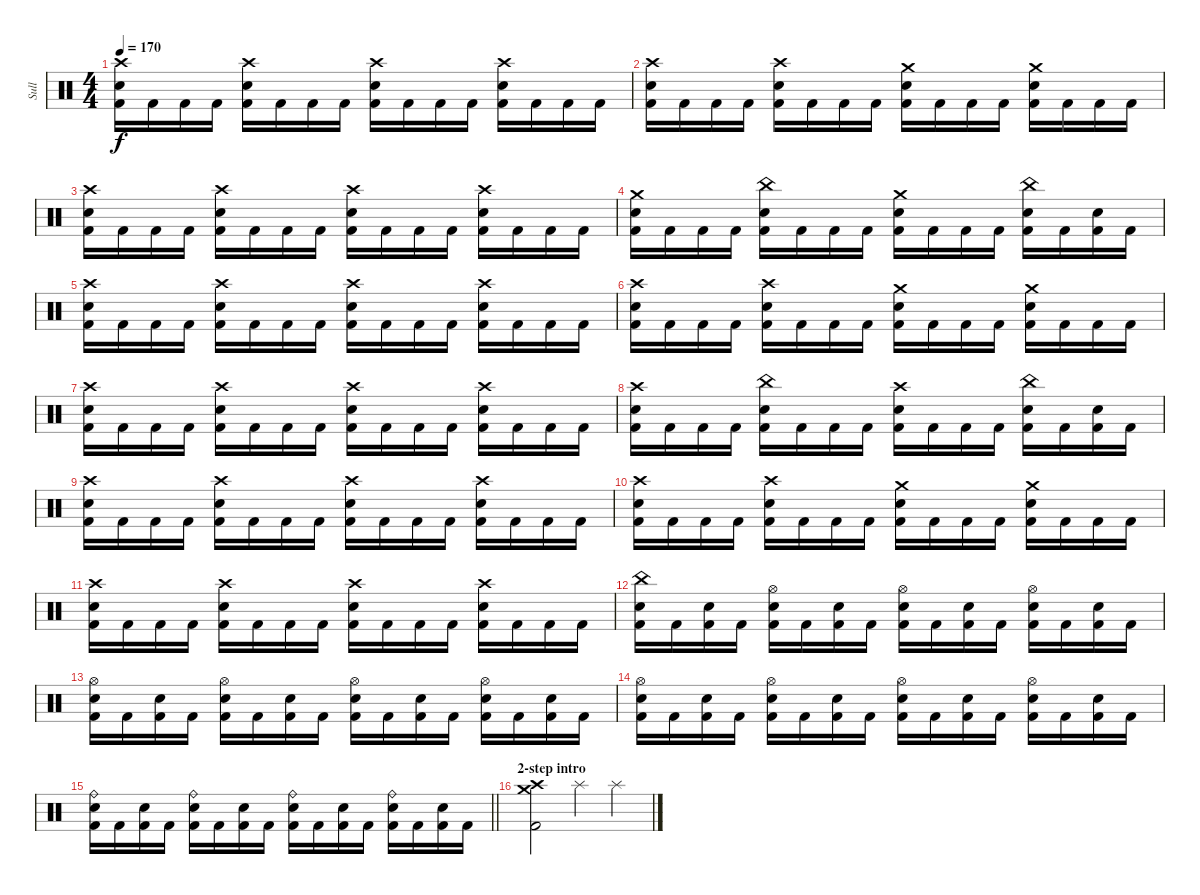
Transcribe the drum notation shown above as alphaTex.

\track ("Sull" "Sull") {instrument percussion}
\staff {score}
\articulation defaults
\ts (4 4)
\tempo 170
\clef neutral
\ks c
("Crash high (hit)" "Electric Snare (hit)" "Kick (hit) 2").16{dy f} "Kick (hit) 2".16 "Kick (hit) 2".16 "Kick (hit) 2".16 ("Crash high (hit)" "Electric Snare (hit)" "Kick (hit) 2").16 "Kick (hit) 2".16 "Kick (hit) 2".16 "Kick (hit) 2".16 ("Crash high (hit)" "Electric Snare (hit)" "Kick (hit) 2").16 "Kick (hit) 2".16 "Kick (hit) 2".16 "Kick (hit) 2".16 ("Crash high (hit)" "Electric Snare (hit)" "Kick (hit) 2").16 "Kick (hit) 2".16 "Kick (hit) 2".16 "Kick (hit) 2".16 |
("Crash high (hit)" "Electric Snare (hit)" "Kick (hit) 2").16 "Kick (hit) 2".16 "Kick (hit) 2".16 "Kick (hit) 2".16 ("Crash high (hit)" "Electric Snare (hit)" "Kick (hit) 2").16 "Kick (hit) 2".16 "Kick (hit) 2".16 "Kick (hit) 2".16 ("Crash medium (hit)" "Electric Snare (hit)" "Kick (hit) 2").16 "Kick (hit) 2".16 "Kick (hit) 2".16 "Kick (hit) 2".16 ("Crash medium (hit)" "Electric Snare (hit)" "Kick (hit) 2").16 "Kick (hit) 2".16 "Kick (hit) 2".16 "Kick (hit) 2".16 |
("Crash high (hit)" "Electric Snare (hit)" "Kick (hit) 2").16 "Kick (hit) 2".16 "Kick (hit) 2".16 "Kick (hit) 2".16 ("Crash high (hit)" "Electric Snare (hit)" "Kick (hit) 2").16 "Kick (hit) 2".16 "Kick (hit) 2".16 "Kick (hit) 2".16 ("Crash high (hit)" "Electric Snare (hit)" "Kick (hit) 2").16 "Kick (hit) 2".16 "Kick (hit) 2".16 "Kick (hit) 2".16 ("Crash high (hit)" "Electric Snare (hit)" "Kick (hit) 2").16 "Kick (hit) 2".16 "Kick (hit) 2".16 "Kick (hit) 2".16 |
("Crash medium (hit)" "Electric Snare (hit)" "Kick (hit) 2").16 "Kick (hit) 2".16 "Kick (hit) 2".16 "Kick (hit) 2".16 ("China (hit)" "Electric Snare (hit)" "Kick (hit) 2").16 "Kick (hit) 2".16 "Kick (hit) 2".16 "Kick (hit) 2".16 ("Crash medium (hit)" "Electric Snare (hit)" "Kick (hit) 2").16 "Kick (hit) 2".16 "Kick (hit) 2".16 "Kick (hit) 2".16 ("China (hit)" "Electric Snare (hit)" "Kick (hit) 2").16 "Kick (hit) 2".16 ("Electric Snare (hit)" "Kick (hit) 2").16 "Kick (hit) 2".16 |
("Crash high (hit)" "Electric Snare (hit)" "Kick (hit) 2").16 "Kick (hit) 2".16 "Kick (hit) 2".16 "Kick (hit) 2".16 ("Crash high (hit)" "Electric Snare (hit)" "Kick (hit) 2").16 "Kick (hit) 2".16 "Kick (hit) 2".16 "Kick (hit) 2".16 ("Crash high (hit)" "Electric Snare (hit)" "Kick (hit) 2").16 "Kick (hit) 2".16 "Kick (hit) 2".16 "Kick (hit) 2".16 ("Crash high (hit)" "Electric Snare (hit)" "Kick (hit) 2").16 "Kick (hit) 2".16 "Kick (hit) 2".16 "Kick (hit) 2".16 |
("Crash high (hit)" "Electric Snare (hit)" "Kick (hit) 2").16 "Kick (hit) 2".16 "Kick (hit) 2".16 "Kick (hit) 2".16 ("Crash high (hit)" "Electric Snare (hit)" "Kick (hit) 2").16 "Kick (hit) 2".16 "Kick (hit) 2".16 "Kick (hit) 2".16 ("Crash medium (hit)" "Electric Snare (hit)" "Kick (hit) 2").16 "Kick (hit) 2".16 "Kick (hit) 2".16 "Kick (hit) 2".16 ("Crash medium (hit)" "Electric Snare (hit)" "Kick (hit) 2").16 "Kick (hit) 2".16 "Kick (hit) 2".16 "Kick (hit) 2".16 |
("Crash high (hit)" "Electric Snare (hit)" "Kick (hit) 2").16 "Kick (hit) 2".16 "Kick (hit) 2".16 "Kick (hit) 2".16 ("Crash high (hit)" "Electric Snare (hit)" "Kick (hit) 2").16 "Kick (hit) 2".16 "Kick (hit) 2".16 "Kick (hit) 2".16 ("Crash high (hit)" "Electric Snare (hit)" "Kick (hit) 2").16 "Kick (hit) 2".16 "Kick (hit) 2".16 "Kick (hit) 2".16 ("Crash high (hit)" "Electric Snare (hit)" "Kick (hit) 2").16 "Kick (hit) 2".16 "Kick (hit) 2".16 "Kick (hit) 2".16 |
("Crash high (hit)" "Electric Snare (hit)" "Kick (hit) 2").16 "Kick (hit) 2".16 "Kick (hit) 2".16 "Kick (hit) 2".16 ("China (hit)" "Electric Snare (hit)" "Kick (hit) 2").16 "Kick (hit) 2".16 "Kick (hit) 2".16 "Kick (hit) 2".16 ("Crash high (hit)" "Electric Snare (hit)" "Kick (hit) 2").16 "Kick (hit) 2".16 "Kick (hit) 2".16 "Kick (hit) 2".16 ("China (hit)" "Electric Snare (hit)" "Kick (hit) 2").16 "Kick (hit) 2".16 ("Electric Snare (hit)" "Kick (hit) 2").16 "Kick (hit) 2".16 |
("Crash high (hit)" "Electric Snare (hit)" "Kick (hit) 2").16 "Kick (hit) 2".16 "Kick (hit) 2".16 "Kick (hit) 2".16 ("Crash high (hit)" "Electric Snare (hit)" "Kick (hit) 2").16 "Kick (hit) 2".16 "Kick (hit) 2".16 "Kick (hit) 2".16 ("Crash high (hit)" "Electric Snare (hit)" "Kick (hit) 2").16 "Kick (hit) 2".16 "Kick (hit) 2".16 "Kick (hit) 2".16 ("Crash high (hit)" "Electric Snare (hit)" "Kick (hit) 2").16 "Kick (hit) 2".16 "Kick (hit) 2".16 "Kick (hit) 2".16 |
("Crash high (hit)" "Electric Snare (hit)" "Kick (hit) 2").16 "Kick (hit) 2".16 "Kick (hit) 2".16 "Kick (hit) 2".16 ("Crash high (hit)" "Electric Snare (hit)" "Kick (hit) 2").16 "Kick (hit) 2".16 "Kick (hit) 2".16 "Kick (hit) 2".16 ("Crash medium (hit)" "Electric Snare (hit)" "Kick (hit) 2").16 "Kick (hit) 2".16 "Kick (hit) 2".16 "Kick (hit) 2".16 ("Crash medium (hit)" "Electric Snare (hit)" "Kick (hit) 2").16 "Kick (hit) 2".16 "Kick (hit) 2".16 "Kick (hit) 2".16 |
("Crash high (hit)" "Electric Snare (hit)" "Kick (hit) 2").16 "Kick (hit) 2".16 "Kick (hit) 2".16 "Kick (hit) 2".16 ("Crash high (hit)" "Electric Snare (hit)" "Kick (hit) 2").16 "Kick (hit) 2".16 "Kick (hit) 2".16 "Kick (hit) 2".16 ("Crash high (hit)" "Electric Snare (hit)" "Kick (hit) 2").16 "Kick (hit) 2".16 "Kick (hit) 2".16 "Kick (hit) 2".16 ("Crash high (hit)" "Electric Snare (hit)" "Kick (hit) 2").16 "Kick (hit) 2".16 "Kick (hit) 2".16 "Kick (hit) 2".16 |
("China (hit)" "Electric Snare (hit)" "Kick (hit) 2").16 "Kick (hit) 2".16 ("Electric Snare (hit)" "Kick (hit) 2").16 "Kick (hit) 2".16 ("Hi-Hat (open)" "Electric Snare (hit)" "Kick (hit) 2").16 "Kick (hit) 2".16 ("Electric Snare (hit)" "Kick (hit) 2").16 "Kick (hit) 2".16 ("Hi-Hat (open)" "Electric Snare (hit)" "Kick (hit) 2").16 "Kick (hit) 2".16 ("Electric Snare (hit)" "Kick (hit) 2").16 "Kick (hit) 2".16 ("Hi-Hat (open)" "Electric Snare (hit)" "Kick (hit) 2").16 "Kick (hit) 2".16 ("Electric Snare (hit)" "Kick (hit) 2").16 "Kick (hit) 2".16 |
("Hi-Hat (open)" "Electric Snare (hit)" "Kick (hit) 2").16 "Kick (hit) 2".16 ("Electric Snare (hit)" "Kick (hit) 2").16 "Kick (hit) 2".16 ("Hi-Hat (open)" "Electric Snare (hit)" "Kick (hit) 2").16 "Kick (hit) 2".16 ("Electric Snare (hit)" "Kick (hit) 2").16 "Kick (hit) 2".16 ("Hi-Hat (open)" "Electric Snare (hit)" "Kick (hit) 2").16 "Kick (hit) 2".16 ("Electric Snare (hit)" "Kick (hit) 2").16 "Kick (hit) 2".16 ("Hi-Hat (open)" "Electric Snare (hit)" "Kick (hit) 2").16 "Kick (hit) 2".16 ("Electric Snare (hit)" "Kick (hit) 2").16 "Kick (hit) 2".16 |
("Hi-Hat (open)" "Electric Snare (hit)" "Kick (hit) 2").16 "Kick (hit) 2".16 ("Electric Snare (hit)" "Kick (hit) 2").16 "Kick (hit) 2".16 ("Hi-Hat (open)" "Electric Snare (hit)" "Kick (hit) 2").16 "Kick (hit) 2".16 ("Electric Snare (hit)" "Kick (hit) 2").16 "Kick (hit) 2".16 ("Hi-Hat (open)" "Electric Snare (hit)" "Kick (hit) 2").16 "Kick (hit) 2".16 ("Electric Snare (hit)" "Kick (hit) 2").16 "Kick (hit) 2".16 ("Hi-Hat (open)" "Electric Snare (hit)" "Kick (hit) 2").16 "Kick (hit) 2".16 ("Electric Snare (hit)" "Kick (hit) 2").16 "Kick (hit) 2".16 |
\barLineRight lightlight
("Ride (bell)" "Electric Snare (hit)" "Kick (hit) 2").16 "Kick (hit) 2".16 ("Electric Snare (hit)" "Kick (hit) 2").16 "Kick (hit) 2".16 ("Ride (bell)" "Electric Snare (hit)" "Kick (hit) 2").16 "Kick (hit) 2".16 ("Electric Snare (hit)" "Kick (hit) 2").16 "Kick (hit) 2".16 ("Ride (bell)" "Electric Snare (hit)" "Kick (hit) 2").16 "Kick (hit) 2".16 ("Electric Snare (hit)" "Kick (hit) 2").16 "Kick (hit) 2".16 ("Ride (bell)" "Electric Snare (hit)" "Kick (hit) 2").16 "Kick (hit) 2".16 ("Electric Snare (hit)" "Kick (hit) 2").16 "Kick (hit) 2".16 |
\section ("" "2-step intro")
("Crash high (hit)" "Crash medium (hit)" "Kick (hit) 2").2 "Splash (hit)".4 "Splash (hit)".4
